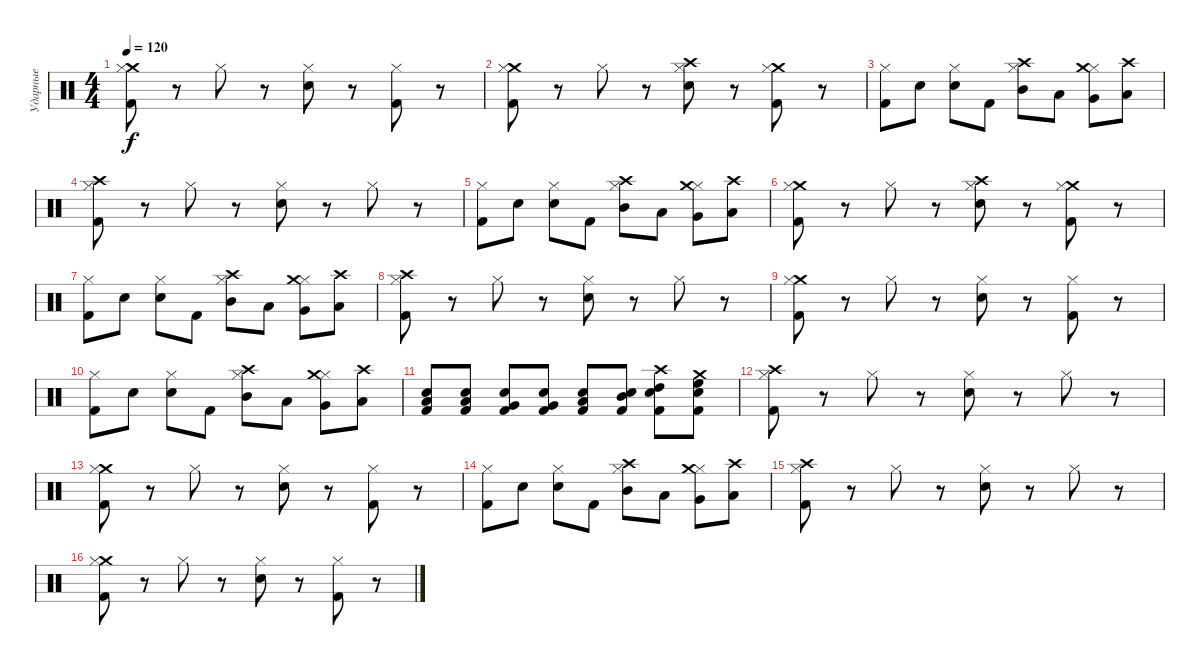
\track ("Ударные" "Ударные") {instrument percussion}
\staff {score}
\articulation defaults
\ts (4 4)
\tempo 120
\clef neutral
\ks c
("Crash medium (hit)" "Hi-Hat (closed)" "Kick (hit) 2").8{dy f} r.8 "Hi-Hat (closed)".8 r.8 ("Snare (hit) 2" "Hi-Hat (closed)").8 r.8 ("Hi-Hat (closed)" "Kick (hit) 2").8 r.8 |
("Crash medium (hit)" "Hi-Hat (closed)" "Kick (hit) 2").8 r.8 "Hi-Hat (closed)".8 r.8 ("Snare (hit) 2" "Hi-Hat (closed)" "Crash high (hit)").8 r.8 ("Crash medium (hit)" "Hi-Hat (closed)" "Kick (hit) 2").8 r.8 |
("Hi-Hat (closed)" "Kick (hit) 2").8 "Snare (hit) 2".8 ("Snare (hit) 2" "Hi-Hat (closed)").8 "Kick (hit) 2".8 ("Mid Tom (hit)" "Hi-Hat (closed)" "Crash high (hit)").8 "Low Tom (hit)".8 ("Very Low Tom (hit)" "Hi-Hat (closed)" "Crash medium (hit)").8 ("Low Floor Tom (hit)" "Crash high (hit)").8 |
("Crash high (hit)" "Hi-Hat (closed)" "Kick (hit) 2").8 r.8 "Hi-Hat (closed)".8 r.8 ("Snare (hit) 2" "Hi-Hat (closed)").8 r.8 "Hi-Hat (closed)".8 r.8 |
("Hi-Hat (closed)" "Kick (hit) 2").8 "Snare (hit) 2".8 ("Snare (hit) 2" "Hi-Hat (closed)").8 "Kick (hit) 2".8 ("Mid Tom (hit)" "Hi-Hat (closed)" "Crash high (hit)").8 "Low Tom (hit)".8 ("Very Low Tom (hit)" "Hi-Hat (closed)" "Crash medium (hit)").8 ("Low Floor Tom (hit)" "Crash high (hit)").8 |
("Crash medium (hit)" "Hi-Hat (closed)" "Kick (hit) 2").8 r.8 "Hi-Hat (closed)".8 r.8 ("Snare (hit) 2" "Hi-Hat (closed)" "Crash high (hit)").8 r.8 ("Crash medium (hit)" "Hi-Hat (closed)" "Kick (hit) 2").8 r.8 |
("Hi-Hat (closed)" "Kick (hit) 2").8 "Snare (hit) 2".8 ("Snare (hit) 2" "Hi-Hat (closed)").8 "Kick (hit) 2".8 ("Mid Tom (hit)" "Hi-Hat (closed)" "Crash high (hit)").8 "Low Tom (hit)".8 ("Very Low Tom (hit)" "Hi-Hat (closed)" "Crash medium (hit)").8 ("Low Floor Tom (hit)" "Crash high (hit)").8 |
("Crash high (hit)" "Hi-Hat (closed)" "Kick (hit) 2").8 r.8 "Hi-Hat (closed)".8 r.8 ("Snare (hit) 2" "Hi-Hat (closed)").8 r.8 "Hi-Hat (closed)".8 r.8 |
("Crash medium (hit)" "Hi-Hat (closed)" "Kick (hit) 2").8 r.8 "Hi-Hat (closed)".8 r.8 ("Snare (hit) 2" "Hi-Hat (closed)").8 r.8 ("Hi-Hat (closed)" "Kick (hit) 2").8 r.8 |
("Hi-Hat (closed)" "Kick (hit) 2").8 "Snare (hit) 2".8 ("Snare (hit) 2" "Hi-Hat (closed)").8 "Kick (hit) 2".8 ("Mid Tom (hit)" "Hi-Hat (closed)" "Crash high (hit)").8 "Low Tom (hit)".8 ("Very Low Tom (hit)" "Hi-Hat (closed)" "Crash medium (hit)").8 ("Low Floor Tom (hit)" "Crash high (hit)").8 |
("Kick (hit) 2" "Low Floor Tom (hit)" "Electric Snare (hit)").8 ("Kick (hit) 2" "Low Floor Tom (hit)" "Electric Snare (hit)").8 ("Kick (hit) 2" "Very Low Tom (hit)" "Electric Snare (hit)").8 ("Kick (hit) 2" "Very Low Tom (hit)" "Electric Snare (hit)").8 ("Kick (hit) 2" "Low Tom (hit)" "Electric Snare (hit)").8 ("Kick (hit) 2" "Mid Tom (hit)" "Electric Snare (hit)").8 ("Kick (hit) 2" "High Tom (hit)" "Electric Snare (hit)" "Crash high (hit)").8 ("Kick (hit) 2" "High Floor Tom (hit)" "Electric Snare (hit)" "Crash medium (hit)").8 |
("Crash high (hit)" "Hi-Hat (closed)" "Kick (hit) 2").8 r.8 "Hi-Hat (closed)".8 r.8 ("Snare (hit) 2" "Hi-Hat (closed)").8 r.8 "Hi-Hat (closed)".8 r.8 |
("Crash medium (hit)" "Hi-Hat (closed)" "Kick (hit) 2").8 r.8 "Hi-Hat (closed)".8 r.8 ("Snare (hit) 2" "Hi-Hat (closed)").8 r.8 ("Hi-Hat (closed)" "Kick (hit) 2").8 r.8 |
("Hi-Hat (closed)" "Kick (hit) 2").8 "Snare (hit) 2".8 ("Snare (hit) 2" "Hi-Hat (closed)").8 "Kick (hit) 2".8 ("Mid Tom (hit)" "Hi-Hat (closed)" "Crash high (hit)").8 "Low Tom (hit)".8 ("Very Low Tom (hit)" "Hi-Hat (closed)" "Crash medium (hit)").8 ("Low Floor Tom (hit)" "Crash high (hit)").8 |
("Crash high (hit)" "Hi-Hat (closed)" "Kick (hit) 2").8 r.8 "Hi-Hat (closed)".8 r.8 ("Snare (hit) 2" "Hi-Hat (closed)").8 r.8 "Hi-Hat (closed)".8 r.8 |
("Crash medium (hit)" "Hi-Hat (closed)" "Kick (hit) 2").8 r.8 "Hi-Hat (closed)".8 r.8 ("Snare (hit) 2" "Hi-Hat (closed)").8 r.8 ("Hi-Hat (closed)" "Kick (hit) 2").8 r.8
